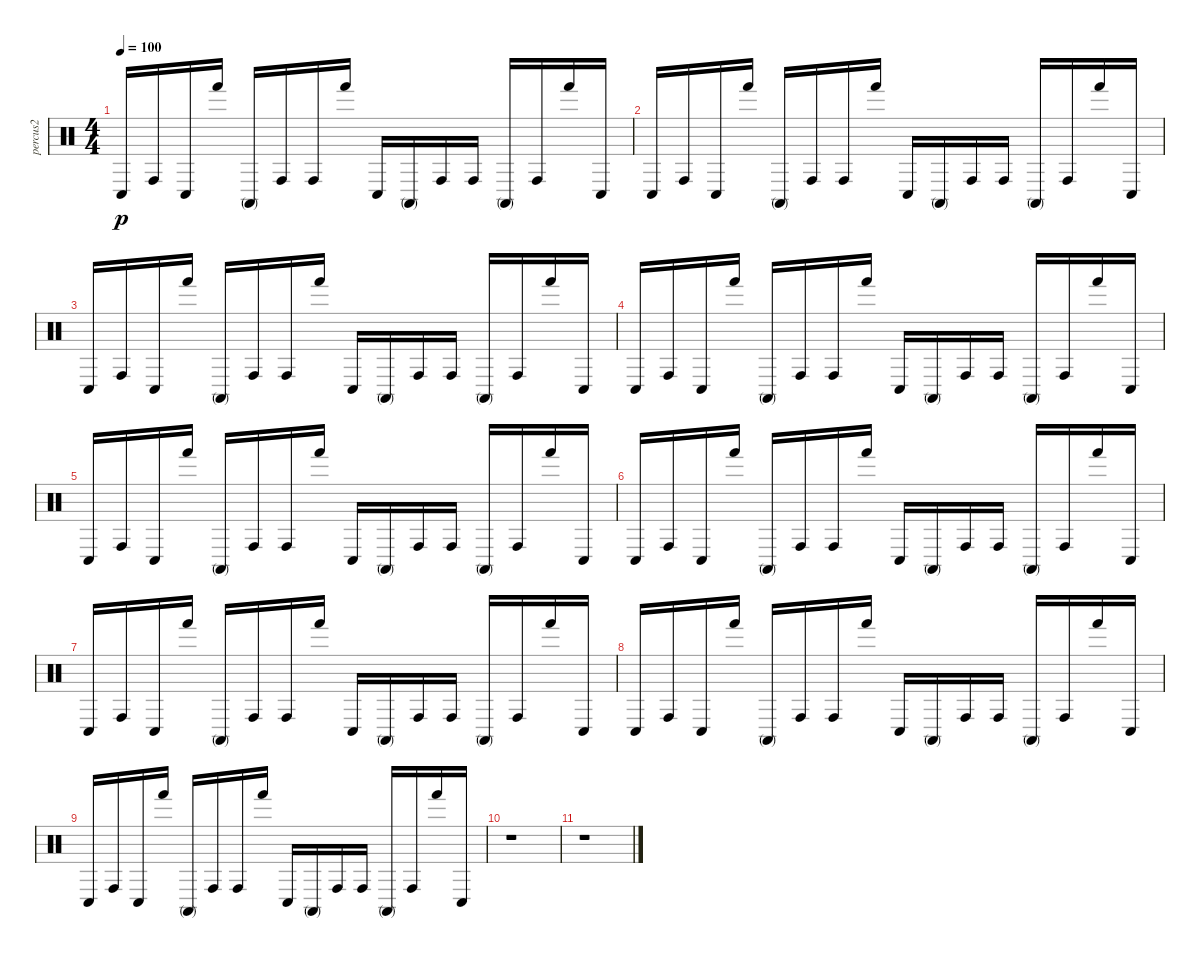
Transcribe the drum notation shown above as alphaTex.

\track ("percus2" "percus2") {instrument percussion}
\staff {score}
\articulation defaults
\ts (4 4)
\tempo 100
\clef neutral
\ks c "Conga low (hit)".16{dy p} "Conga high (hit)".16 "Conga low (hit)".16 "Hand (hit)".16 "Conga high (mute)".16 "Conga high (hit)".16 "Conga high (hit)".16 "Hand (hit)".16 "Conga low (hit)".16 "Conga high (mute)".16 "Conga high (hit)".16 "Conga high (hit)".16 "Conga high (mute)".16 "Conga high (hit)".16 "Hand (hit)".16 "Conga low (hit)".16
|
"Conga low (hit)".16 "Conga high (hit)".16 "Conga low (hit)".16 "Hand (hit)".16 "Conga high (mute)".16 "Conga high (hit)".16 "Conga high (hit)".16 "Hand (hit)".16 "Conga low (hit)".16 "Conga high (mute)".16 "Conga high (hit)".16 "Conga high (hit)".16 "Conga high (mute)".16 "Conga high (hit)".16 "Hand (hit)".16 "Conga low (hit)".16 |
"Conga low (hit)".16 "Conga high (hit)".16 "Conga low (hit)".16 "Hand (hit)".16 "Conga high (mute)".16 "Conga high (hit)".16 "Conga high (hit)".16 "Hand (hit)".16 "Conga low (hit)".16 "Conga high (mute)".16 "Conga high (hit)".16 "Conga high (hit)".16 "Conga high (mute)".16 "Conga high (hit)".16 "Hand (hit)".16 "Conga low (hit)".16 |
"Conga low (hit)".16 "Conga high (hit)".16 "Conga low (hit)".16 "Hand (hit)".16 "Conga high (mute)".16 "Conga high (hit)".16 "Conga high (hit)".16 "Hand (hit)".16 "Conga low (hit)".16 "Conga high (mute)".16 "Conga high (hit)".16 "Conga high (hit)".16 "Conga high (mute)".16 "Conga high (hit)".16 "Hand (hit)".16 "Conga low (hit)".16 |
"Conga low (hit)".16 "Conga high (hit)".16 "Conga low (hit)".16 "Hand (hit)".16 "Conga high (mute)".16 "Conga high (hit)".16 "Conga high (hit)".16 "Hand (hit)".16 "Conga low (hit)".16 "Conga high (mute)".16 "Conga high (hit)".16 "Conga high (hit)".16 "Conga high (mute)".16 "Conga high (hit)".16 "Hand (hit)".16 "Conga low (hit)".16 |
"Conga low (hit)".16 "Conga high (hit)".16 "Conga low (hit)".16 "Hand (hit)".16 "Conga high (mute)".16 "Conga high (hit)".16 "Conga high (hit)".16 "Hand (hit)".16 "Conga low (hit)".16 "Conga high (mute)".16 "Conga high (hit)".16 "Conga high (hit)".16 "Conga high (mute)".16 "Conga high (hit)".16 "Hand (hit)".16 "Conga low (hit)".16 |
"Conga low (hit)".16 "Conga high (hit)".16 "Conga low (hit)".16 "Hand (hit)".16 "Conga high (mute)".16 "Conga high (hit)".16 "Conga high (hit)".16 "Hand (hit)".16 "Conga low (hit)".16 "Conga high (mute)".16 "Conga high (hit)".16 "Conga high (hit)".16 "Conga high (mute)".16 "Conga high (hit)".16 "Hand (hit)".16 "Conga low (hit)".16 |
"Conga low (hit)".16 "Conga high (hit)".16 "Conga low (hit)".16 "Hand (hit)".16 "Conga high (mute)".16 "Conga high (hit)".16 "Conga high (hit)".16 "Hand (hit)".16 "Conga low (hit)".16 "Conga high (mute)".16 "Conga high (hit)".16 "Conga high (hit)".16 "Conga high (mute)".16 "Conga high (hit)".16 "Hand (hit)".16 "Conga low (hit)".16 |
"Conga low (hit)".16 "Conga high (hit)".16 "Conga low (hit)".16 "Hand (hit)".16 "Conga high (mute)".16 "Conga high (hit)".16 "Conga high (hit)".16 "Hand (hit)".16 "Conga low (hit)".16 "Conga high (mute)".16 "Conga high (hit)".16 "Conga high (hit)".16 "Conga high (mute)".16 "Conga high (hit)".16 "Hand (hit)".16 "Conga low (hit)".16 |
r.1 |
r.1
